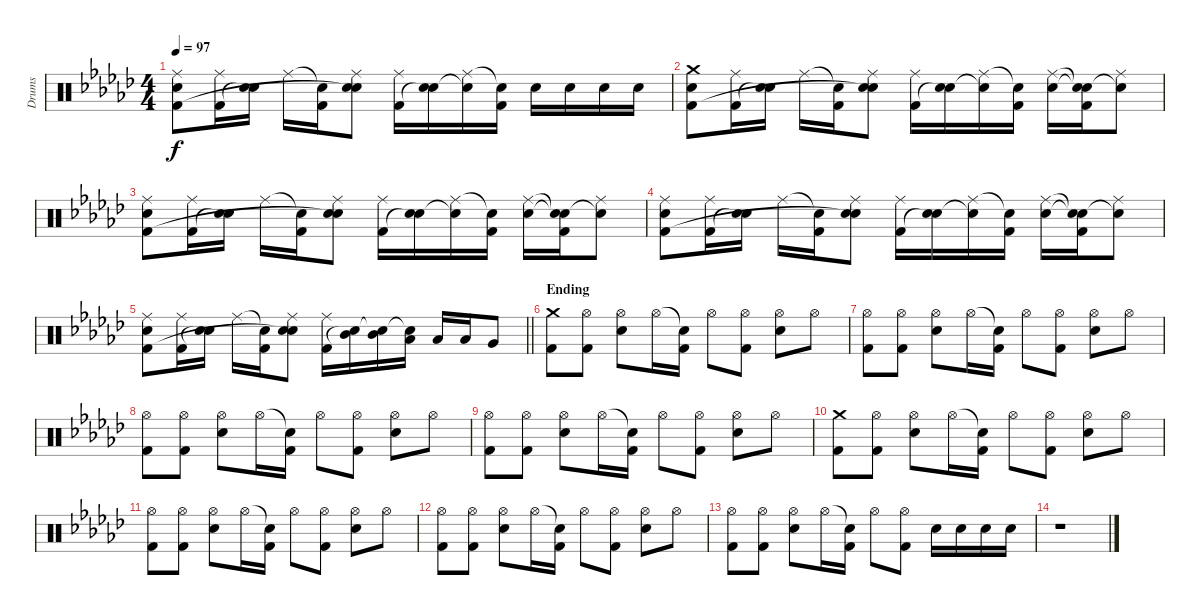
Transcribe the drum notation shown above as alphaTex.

\track ("Drums" "Drums") {instrument percussion}
\staff {score}
\articulation defaults
\ts (4 4)
\tempo 97
\clef neutral
\ks ebminor
("Ride (middle)" "Electric Snare (hit)" "Kick (hit) 2").8{dy f} ("Ride (middle)" "Kick (hit) 2").16 ("Electric Snare (hit)" "Snare (hit)"{t}).16 "Ride (middle)".16 ("Snare (hit)"{t} "Kick (hit) 2").16 ("Ride (middle)" "Electric Snare (hit)" "Snare (hit)"{t}).8 ("Ride (middle)" "Kick (hit) 2").16 ("Electric Snare (hit)" "Snare (hit)"{t}).16 ("Ride (middle)" "Snare (hit)"{t}).16 ("Snare (hit)"{t} "Kick (hit) 2").16 "Electric Snare (hit)".16 "Electric Snare (hit)".16 "Electric Snare (hit)".16 "Electric Snare (hit)".16 |
("Crash medium (hit)" "Electric Snare (hit)" "Kick (hit) 2").8 ("Ride (middle)" "Kick (hit) 2").16 ("Electric Snare (hit)" "Snare (hit)"{t}).16 "Ride (middle)".16 ("Snare (hit)"{t} "Kick (hit) 2").16 ("Ride (middle)" "Electric Snare (hit)" "Snare (hit)"{t}).8 ("Ride (middle)" "Kick (hit) 2").16 ("Electric Snare (hit)" "Snare (hit)"{t}).16 ("Ride (middle)" "Snare (hit)"{t}).16 ("Snare (hit)"{t} "Kick (hit) 2").16 ("Ride (middle)" "Electric Snare (hit)").16 ("Snare (hit)"{t} "Snare (hit)"{t} "Kick (hit) 2").16 ("Ride (middle)" "Snare (hit)"{t}).8 |
("Ride (middle)" "Electric Snare (hit)" "Kick (hit) 2").8 ("Ride (middle)" "Kick (hit) 2").16 ("Electric Snare (hit)" "Snare (hit)"{t}).16 "Ride (middle)".16 ("Snare (hit)"{t} "Kick (hit) 2").16 ("Ride (middle)" "Electric Snare (hit)" "Snare (hit)"{t}).8 ("Ride (middle)" "Kick (hit) 2").16 ("Electric Snare (hit)" "Snare (hit)"{t}).16 ("Ride (middle)" "Snare (hit)"{t}).16 ("Snare (hit)"{t} "Kick (hit) 2").16 ("Ride (middle)" "Electric Snare (hit)").16 ("Snare (hit)"{t} "Snare (hit)"{t} "Kick (hit) 2").16 ("Ride (middle)" "Snare (hit)"{t}).8 |
("Ride (middle)" "Electric Snare (hit)" "Kick (hit) 2").8 ("Ride (middle)" "Kick (hit) 2").16 ("Electric Snare (hit)" "Snare (hit)"{t}).16 "Ride (middle)".16 ("Snare (hit)"{t} "Kick (hit) 2").16 ("Ride (middle)" "Electric Snare (hit)" "Snare (hit)"{t}).8 ("Ride (middle)" "Kick (hit) 2").16 ("Electric Snare (hit)" "Snare (hit)"{t}).16 ("Ride (middle)" "Snare (hit)"{t}).16 ("Snare (hit)"{t} "Kick (hit) 2").16 ("Ride (middle)" "Electric Snare (hit)").16 ("Snare (hit)"{t} "Snare (hit)"{t} "Kick (hit) 2").16 ("Ride (middle)" "Snare (hit)"{t}).8 |
\barLineRight lightlight
("Ride (middle)" "Electric Snare (hit)" "Kick (hit) 2").8 ("Ride (middle)" "Kick (hit) 2").16 ("Electric Snare (hit)" "Snare (hit)"{t}).16 "Ride (middle)".16 ("Snare (hit)"{t} "Kick (hit) 2").16 ("Ride (middle)" "Electric Snare (hit)" "Snare (hit)"{t}).8 ("Ride (middle)" "Kick (hit) 2").16 ("Mid Tom (hit)" "Snare (hit)"{t}).16 ("Mid Tom (hit)" "Snare (hit)"{t}).16 ("Low Tom (hit)" "Snare (hit)"{t}).16 "Low Tom (hit)".16 "Low Tom (hit)".16 "Very Low Tom (hit)".8 |
\section ("" "Ending")
("Crash medium (hit)" "Kick (hit) 2").8 ("Hi-Hat (open)" "Kick (hit) 2").8 ("Hi-Hat (open)" "Electric Snare (hit)").8 "Hi-Hat (open)".16 ("Snare (hit)"{t} "Kick (hit) 2").16 "Hi-Hat (open)".8 ("Hi-Hat (open)" "Kick (hit) 2").8 ("Hi-Hat (open)" "Electric Snare (hit)").8 "Hi-Hat (open)".8 |
("Hi-Hat (open)" "Kick (hit) 2").8 ("Hi-Hat (open)" "Kick (hit) 2").8 ("Hi-Hat (open)" "Electric Snare (hit)").8 "Hi-Hat (open)".16 ("Snare (hit)"{t} "Kick (hit) 2").16 "Hi-Hat (open)".8 ("Hi-Hat (open)" "Kick (hit) 2").8 ("Hi-Hat (open)" "Electric Snare (hit)").8 "Hi-Hat (open)".8 |
("Hi-Hat (open)" "Kick (hit) 2").8 ("Hi-Hat (open)" "Kick (hit) 2").8 ("Hi-Hat (open)" "Electric Snare (hit)").8 "Hi-Hat (open)".16 ("Snare (hit)"{t} "Kick (hit) 2").16 "Hi-Hat (open)".8 ("Hi-Hat (open)" "Kick (hit) 2").8 ("Hi-Hat (open)" "Electric Snare (hit)").8 "Hi-Hat (open)".8 |
("Hi-Hat (open)" "Kick (hit) 2").8 ("Hi-Hat (open)" "Kick (hit) 2").8 ("Hi-Hat (open)" "Electric Snare (hit)").8 "Hi-Hat (open)".16 ("Snare (hit)"{t} "Kick (hit) 2").16 "Hi-Hat (open)".8 ("Hi-Hat (open)" "Kick (hit) 2").8 ("Hi-Hat (open)" "Electric Snare (hit)").8 "Hi-Hat (open)".8 |
("Crash medium (hit)" "Kick (hit) 2").8 ("Hi-Hat (open)" "Kick (hit) 2").8 ("Hi-Hat (open)" "Electric Snare (hit)").8 "Hi-Hat (open)".16 ("Snare (hit)"{t} "Kick (hit) 2").16 "Hi-Hat (open)".8 ("Hi-Hat (open)" "Kick (hit) 2").8 ("Hi-Hat (open)" "Electric Snare (hit)").8 "Hi-Hat (open)".8 |
("Hi-Hat (open)" "Kick (hit) 2").8 ("Hi-Hat (open)" "Kick (hit) 2").8 ("Hi-Hat (open)" "Electric Snare (hit)").8 "Hi-Hat (open)".16 ("Snare (hit)"{t} "Kick (hit) 2").16 "Hi-Hat (open)".8 ("Hi-Hat (open)" "Kick (hit) 2").8 ("Hi-Hat (open)" "Electric Snare (hit)").8 "Hi-Hat (open)".8 |
("Hi-Hat (open)" "Kick (hit) 2").8 ("Hi-Hat (open)" "Kick (hit) 2").8 ("Hi-Hat (open)" "Electric Snare (hit)").8 "Hi-Hat (open)".16 ("Snare (hit)"{t} "Kick (hit) 2").16 "Hi-Hat (open)".8 ("Hi-Hat (open)" "Kick (hit) 2").8 ("Hi-Hat (open)" "Electric Snare (hit)").8 "Hi-Hat (open)".8 |
("Hi-Hat (open)" "Kick (hit) 2").8 ("Hi-Hat (open)" "Kick (hit) 2").8 ("Hi-Hat (open)" "Electric Snare (hit)").8 "Hi-Hat (open)".16 ("Snare (hit)"{t} "Kick (hit) 2").16 "Hi-Hat (open)".8 ("Hi-Hat (open)" "Kick (hit) 2").8 "Electric Snare (hit)".16 "Electric Snare (hit)".16 "Electric Snare (hit)".16 "Electric Snare (hit)".16 |
r.1
